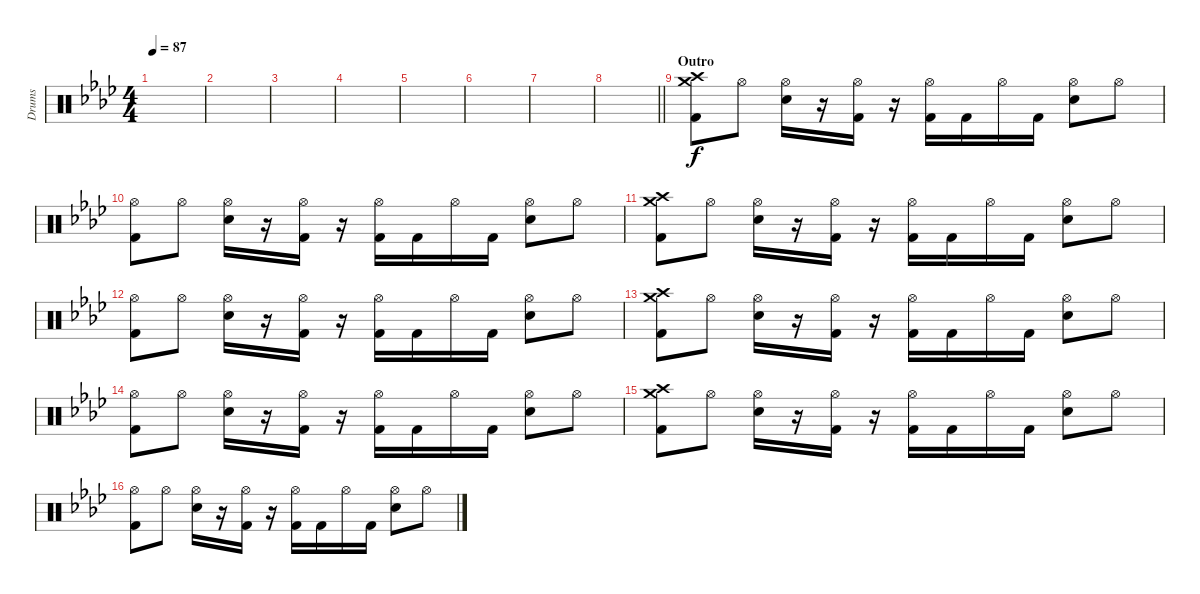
\track ("Drums" "Drums") {instrument percussion}
\staff {score}
\articulation defaults
\ts (4 4)
\tempo 87
\clef neutral
\ks fminor
|
|
|
|
|
|
|
\barLineRight lightlight
|
\section ("" "Outro")
("Crash medium (hit)" "Crash high (hit)" "Kick (hit) 2").8{volume 16} "Hi-Hat (open)".8 ("Hi-Hat (open)" "Electric Snare (hit)").16 r.16 ("Hi-Hat (open)" "Kick (hit) 2").16 r.16 ("Hi-Hat (open)" "Kick (hit) 2").16 "Kick (hit) 2".16 "Hi-Hat (open)".16 "Kick (hit) 2".16 ("Hi-Hat (open)" "Electric Snare (hit)").8 "Hi-Hat (open)".8 |
("Hi-Hat (open)" "Kick (hit) 2").8 "Hi-Hat (open)".8 ("Hi-Hat (open)" "Electric Snare (hit)").16 r.16 ("Hi-Hat (open)" "Kick (hit) 2").16 r.16 ("Hi-Hat (open)" "Kick (hit) 2").16 "Kick (hit) 2".16 "Hi-Hat (open)".16 "Kick (hit) 2".16 ("Hi-Hat (open)" "Electric Snare (hit)").8 "Hi-Hat (open)".8 |
("Crash medium (hit)" "Crash high (hit)" "Kick (hit) 2").8 "Hi-Hat (open)".8 ("Hi-Hat (open)" "Electric Snare (hit)").16 r.16 ("Hi-Hat (open)" "Kick (hit) 2").16 r.16 ("Hi-Hat (open)" "Kick (hit) 2").16 "Kick (hit) 2".16 "Hi-Hat (open)".16 "Kick (hit) 2".16 ("Hi-Hat (open)" "Electric Snare (hit)").8 "Hi-Hat (open)".8 |
("Hi-Hat (open)" "Kick (hit) 2").8 "Hi-Hat (open)".8 ("Hi-Hat (open)" "Electric Snare (hit)").16 r.16 ("Hi-Hat (open)" "Kick (hit) 2").16 r.16 ("Hi-Hat (open)" "Kick (hit) 2").16 "Kick (hit) 2".16 "Hi-Hat (open)".16 "Kick (hit) 2".16 ("Hi-Hat (open)" "Electric Snare (hit)").8 "Hi-Hat (open)".8 |
("Crash medium (hit)" "Crash high (hit)" "Kick (hit) 2").8 "Hi-Hat (open)".8 ("Hi-Hat (open)" "Electric Snare (hit)").16 r.16 ("Hi-Hat (open)" "Kick (hit) 2").16 r.16 ("Hi-Hat (open)" "Kick (hit) 2").16 "Kick (hit) 2".16 "Hi-Hat (open)".16 "Kick (hit) 2".16 ("Hi-Hat (open)" "Electric Snare (hit)").8 "Hi-Hat (open)".8 |
("Hi-Hat (open)" "Kick (hit) 2").8 "Hi-Hat (open)".8 ("Hi-Hat (open)" "Electric Snare (hit)").16 r.16 ("Hi-Hat (open)" "Kick (hit) 2").16 r.16 ("Hi-Hat (open)" "Kick (hit) 2").16 "Kick (hit) 2".16 "Hi-Hat (open)".16 "Kick (hit) 2".16 ("Hi-Hat (open)" "Electric Snare (hit)").8 "Hi-Hat (open)".8 |
("Crash medium (hit)" "Crash high (hit)" "Kick (hit) 2").8 "Hi-Hat (open)".8 ("Hi-Hat (open)" "Electric Snare (hit)").16 r.16 ("Hi-Hat (open)" "Kick (hit) 2").16 r.16 ("Hi-Hat (open)" "Kick (hit) 2").16 "Kick (hit) 2".16 "Hi-Hat (open)".16 "Kick (hit) 2".16 ("Hi-Hat (open)" "Electric Snare (hit)").8 "Hi-Hat (open)".8 |
("Hi-Hat (open)" "Kick (hit) 2").8 "Hi-Hat (open)".8 ("Hi-Hat (open)" "Electric Snare (hit)").16 r.16 ("Hi-Hat (open)" "Kick (hit) 2").16 r.16 ("Hi-Hat (open)" "Kick (hit) 2").16 "Kick (hit) 2".16 "Hi-Hat (open)".16 "Kick (hit) 2".16 ("Hi-Hat (open)" "Electric Snare (hit)").8 "Hi-Hat (open)".8
